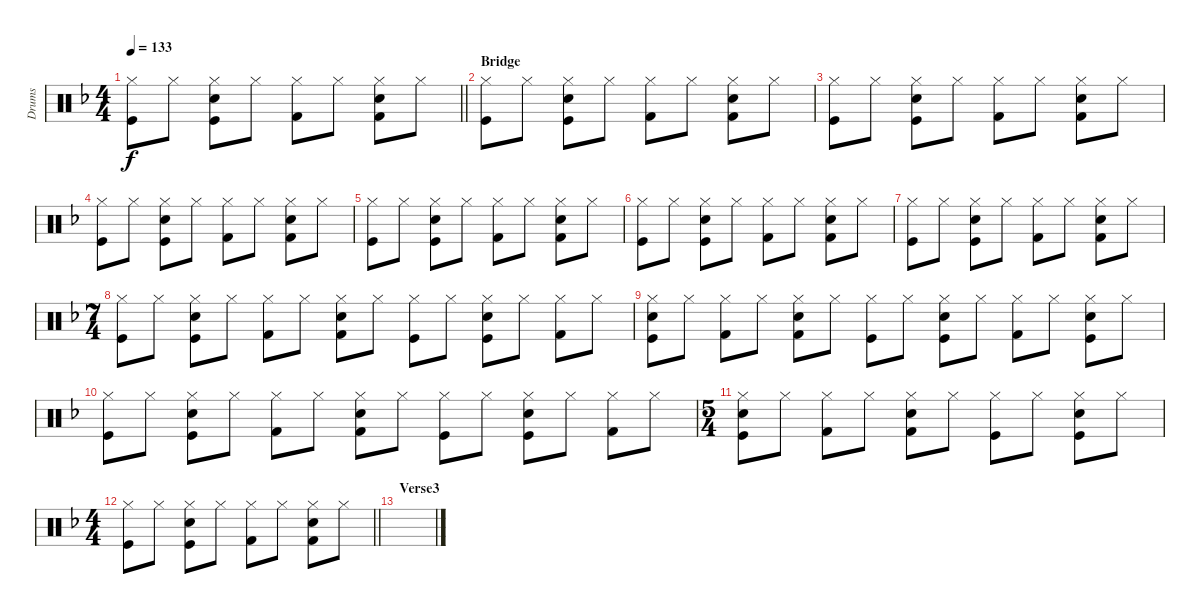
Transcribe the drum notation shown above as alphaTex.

\track ("Drums" "Drums") {instrument percussion}
\staff {score}
\articulation defaults
\ts (4 4)
\tempo 133
\clef neutral
\barLineRight lightlight
\ks f
("Hi-Hat (closed)" "Kick (hit)").8{dy f} "Hi-Hat (closed)".8 ("Hi-Hat (closed)" "Kick (hit)" "Electric Snare (hit)").8 "Hi-Hat (closed)".8 ("Hi-Hat (closed)" "Kick (hit) 2").8 "Hi-Hat (closed)".8 ("Kick (hit) 2" "Hi-Hat (closed)" "Electric Snare (hit)").8 "Hi-Hat (closed)".8 |
\section ("" "Bridge")
("Hi-Hat (closed)" "Kick (hit)").8 "Hi-Hat (closed)".8 ("Hi-Hat (closed)" "Kick (hit)" "Electric Snare (hit)").8 "Hi-Hat (closed)".8 ("Hi-Hat (closed)" "Kick (hit) 2").8 "Hi-Hat (closed)".8 ("Kick (hit) 2" "Hi-Hat (closed)" "Electric Snare (hit)").8 "Hi-Hat (closed)".8 |
("Hi-Hat (closed)" "Kick (hit)").8 "Hi-Hat (closed)".8 ("Hi-Hat (closed)" "Kick (hit)" "Electric Snare (hit)").8 "Hi-Hat (closed)".8 ("Hi-Hat (closed)" "Kick (hit) 2").8 "Hi-Hat (closed)".8 ("Kick (hit) 2" "Hi-Hat (closed)" "Electric Snare (hit)").8 "Hi-Hat (closed)".8 |
("Hi-Hat (closed)" "Kick (hit)").8 "Hi-Hat (closed)".8 ("Hi-Hat (closed)" "Kick (hit)" "Electric Snare (hit)").8 "Hi-Hat (closed)".8 ("Hi-Hat (closed)" "Kick (hit) 2").8 "Hi-Hat (closed)".8 ("Kick (hit) 2" "Hi-Hat (closed)" "Electric Snare (hit)").8 "Hi-Hat (closed)".8 |
("Hi-Hat (closed)" "Kick (hit)").8 "Hi-Hat (closed)".8 ("Hi-Hat (closed)" "Kick (hit)" "Electric Snare (hit)").8 "Hi-Hat (closed)".8 ("Hi-Hat (closed)" "Kick (hit) 2").8 "Hi-Hat (closed)".8 ("Kick (hit) 2" "Hi-Hat (closed)" "Electric Snare (hit)").8 "Hi-Hat (closed)".8 |
("Hi-Hat (closed)" "Kick (hit)").8 "Hi-Hat (closed)".8 ("Hi-Hat (closed)" "Kick (hit)" "Electric Snare (hit)").8 "Hi-Hat (closed)".8 ("Hi-Hat (closed)" "Kick (hit) 2").8 "Hi-Hat (closed)".8 ("Kick (hit) 2" "Hi-Hat (closed)" "Electric Snare (hit)").8 "Hi-Hat (closed)".8 |
("Hi-Hat (closed)" "Kick (hit)").8 "Hi-Hat (closed)".8 ("Hi-Hat (closed)" "Kick (hit)" "Electric Snare (hit)").8 "Hi-Hat (closed)".8 ("Hi-Hat (closed)" "Kick (hit) 2").8 "Hi-Hat (closed)".8 ("Kick (hit) 2" "Hi-Hat (closed)" "Electric Snare (hit)").8 "Hi-Hat (closed)".8 |
\ts (7 4)
("Hi-Hat (closed)" "Kick (hit)").8 "Hi-Hat (closed)".8 ("Hi-Hat (closed)" "Kick (hit)" "Electric Snare (hit)").8 "Hi-Hat (closed)".8 ("Hi-Hat (closed)" "Kick (hit) 2").8 "Hi-Hat (closed)".8 ("Kick (hit) 2" "Hi-Hat (closed)" "Electric Snare (hit)").8 "Hi-Hat (closed)".8 ("Hi-Hat (closed)" "Kick (hit)").8 "Hi-Hat (closed)".8 ("Hi-Hat (closed)" "Kick (hit)" "Electric Snare (hit)").8 "Hi-Hat (closed)".8 ("Hi-Hat (closed)" "Kick (hit) 2").8 "Hi-Hat (closed)".8 |
("Hi-Hat (closed)" "Kick (hit)" "Electric Snare (hit)").8 "Hi-Hat (closed)".8 ("Hi-Hat (closed)" "Kick (hit) 2").8 "Hi-Hat (closed)".8 ("Kick (hit) 2" "Hi-Hat (closed)" "Electric Snare (hit)").8 "Hi-Hat (closed)".8 ("Hi-Hat (closed)" "Kick (hit)").8 "Hi-Hat (closed)".8 ("Hi-Hat (closed)" "Kick (hit)" "Electric Snare (hit)").8 "Hi-Hat (closed)".8 ("Hi-Hat (closed)" "Kick (hit) 2").8 "Hi-Hat (closed)".8 ("Hi-Hat (closed)" "Kick (hit)" "Electric Snare (hit)").8 "Hi-Hat (closed)".8 |
("Hi-Hat (closed)" "Kick (hit)").8 "Hi-Hat (closed)".8 ("Hi-Hat (closed)" "Kick (hit)" "Electric Snare (hit)").8 "Hi-Hat (closed)".8 ("Hi-Hat (closed)" "Kick (hit) 2").8 "Hi-Hat (closed)".8 ("Kick (hit) 2" "Hi-Hat (closed)" "Electric Snare (hit)").8 "Hi-Hat (closed)".8 ("Hi-Hat (closed)" "Kick (hit)").8 "Hi-Hat (closed)".8 ("Hi-Hat (closed)" "Kick (hit)" "Electric Snare (hit)").8 "Hi-Hat (closed)".8 ("Hi-Hat (closed)" "Kick (hit) 2").8 "Hi-Hat (closed)".8 |
\ts (5 4)
("Hi-Hat (closed)" "Kick (hit)" "Electric Snare (hit)").8 "Hi-Hat (closed)".8 ("Hi-Hat (closed)" "Kick (hit) 2").8 "Hi-Hat (closed)".8 ("Kick (hit) 2" "Hi-Hat (closed)" "Electric Snare (hit)").8 "Hi-Hat (closed)".8 ("Hi-Hat (closed)" "Kick (hit)").8 "Hi-Hat (closed)".8 ("Hi-Hat (closed)" "Kick (hit)" "Electric Snare (hit)").8 "Hi-Hat (closed)".8 |
\ts (4 4)
\barLineRight lightlight
("Hi-Hat (closed)" "Kick (hit)").8 "Hi-Hat (closed)".8 ("Hi-Hat (closed)" "Kick (hit)" "Electric Snare (hit)").8 "Hi-Hat (closed)".8 ("Hi-Hat (closed)" "Kick (hit) 2").8 "Hi-Hat (closed)".8 ("Kick (hit) 2" "Hi-Hat (closed)" "Electric Snare (hit)").8 "Hi-Hat (closed)".8 |
\section ("" "Verse3")
